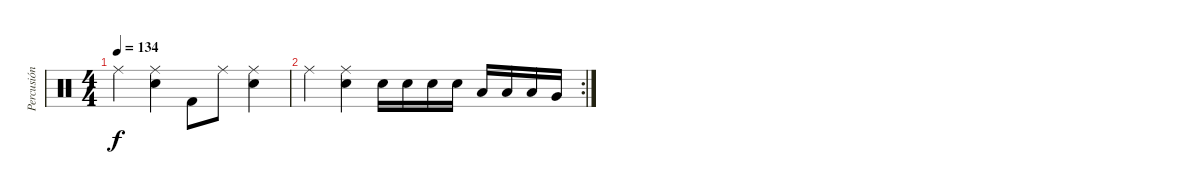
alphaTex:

\track ("Percusión" "Percusión") {instrument percussion}
\staff {score}
\articulation defaults
\ts (4 4)
\tempo 134
\clef neutral
\ks c "Ride (middle)".4{dy f}
("Ride (middle)" "Snare (hit) 2").4 "Kick (hit) 2".8 "Ride (middle)".8 ("Ride (middle)" "Snare (hit) 2").4 |
\rc 2 "Ride (middle)".4
("Ride (middle)" "Snare (hit) 2").4 "Snare (hit) 2".16 "Snare (hit) 2".16 "Snare (hit) 2".16 "Snare (hit) 2".16 "Low Tom (hit)".16 "Low Tom (hit)".16 "Low Tom (hit)".16 "Very Low Tom (hit)".16
